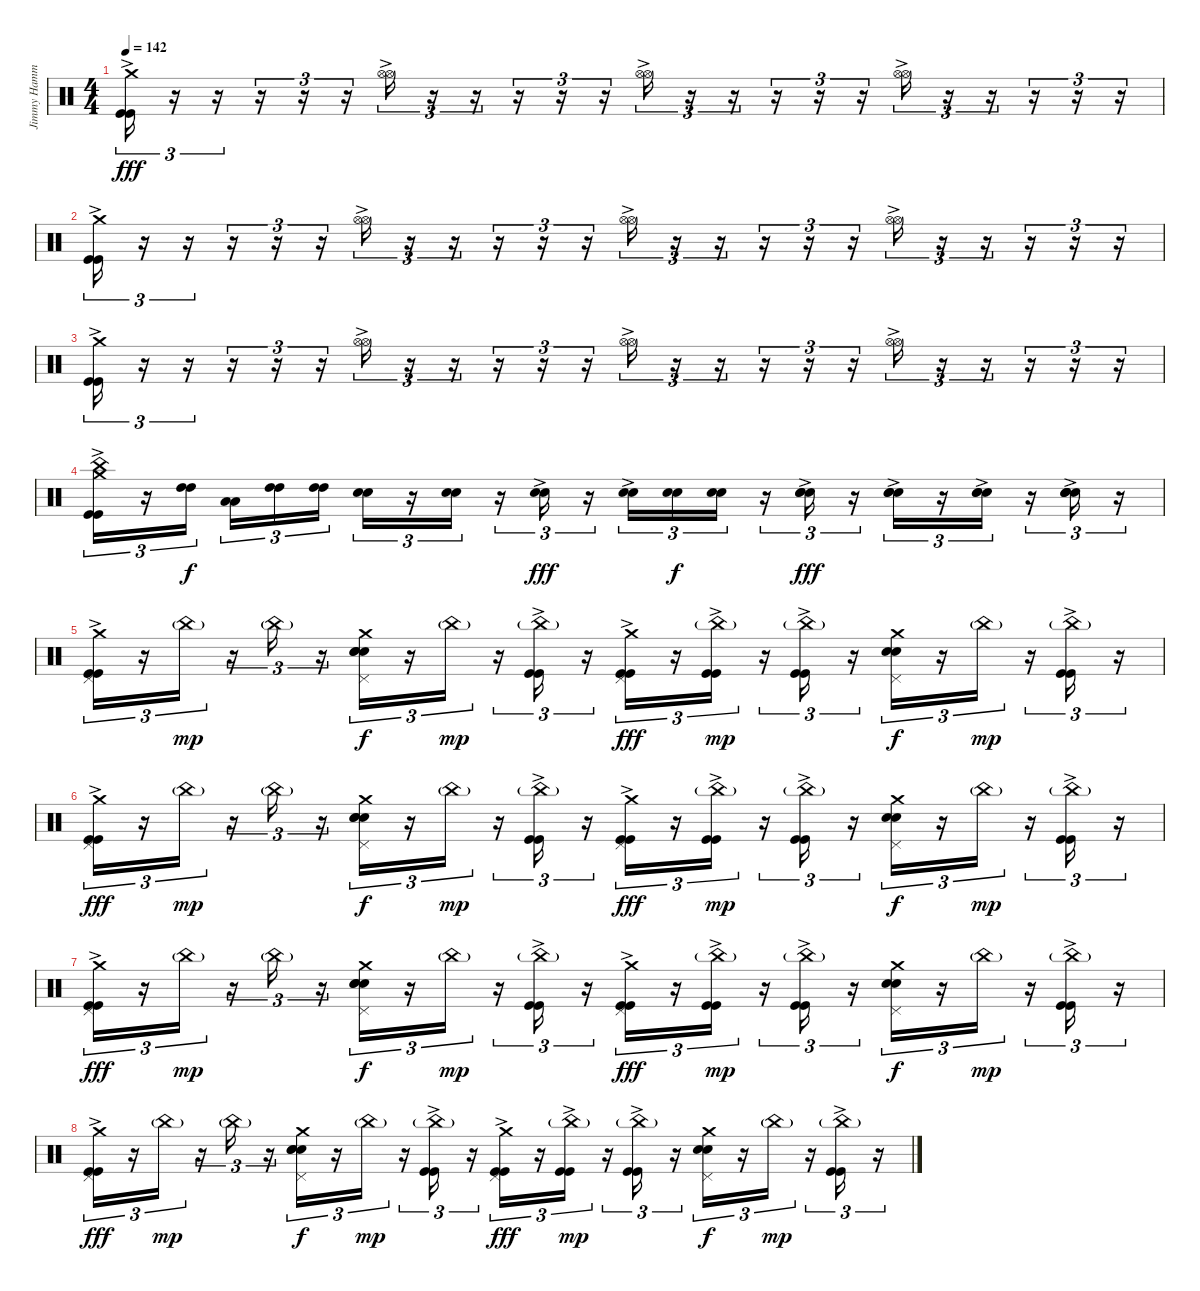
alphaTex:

\track ("Jimmy Hammer" "Jimmy Hamm") {instrument percussion}
\staff {score}
\articulation defaults
\ts (4 4)
\tempo 142
\clef neutral
\ks c
("Kick (hit)"{ac} "Crash medium (hit)"{ac} "Kick (hit)"{ac}).16{tu (3 2) dy fff} r.16{tu (3 2)} r.16{tu (3 2)} r.16{tu (3 2)} r.16{tu (3 2)} r.16{tu (3 2)} ("Hi-Hat (open)"{ac} "Hi-Hat (open)"{ac}).16{tu (3 2)} r.16{tu (3 2)} r.16{tu (3 2)} r.16{tu (3 2)} r.16{tu (3 2)} r.16{tu (3 2)} ("Hi-Hat (open)"{ac} "Hi-Hat (open)"{ac}).16{tu (3 2)} r.16{tu (3 2)} r.16{tu (3 2)} r.16{tu (3 2)} r.16{tu (3 2)} r.16{tu (3 2)} ("Hi-Hat (open)"{ac} "Hi-Hat (open)"{ac}).16{tu (3 2)} r.16{tu (3 2)} r.16{tu (3 2)} r.16{tu (3 2)} r.16{tu (3 2)} r.16{tu (3 2)} |
("Kick (hit)"{ac} "Crash medium (hit)"{ac} "Kick (hit)"{ac}).16{tu (3 2)} r.16{tu (3 2)} r.16{tu (3 2)} r.16{tu (3 2)} r.16{tu (3 2)} r.16{tu (3 2)} ("Hi-Hat (open)"{ac} "Hi-Hat (open)"{ac}).16{tu (3 2)} r.16{tu (3 2)} r.16{tu (3 2)} r.16{tu (3 2)} r.16{tu (3 2)} r.16{tu (3 2)} ("Hi-Hat (open)"{ac} "Hi-Hat (open)"{ac}).16{tu (3 2)} r.16{tu (3 2)} r.16{tu (3 2)} r.16{tu (3 2)} r.16{tu (3 2)} r.16{tu (3 2)} ("Hi-Hat (open)"{ac} "Hi-Hat (open)"{ac}).16{tu (3 2)} r.16{tu (3 2)} r.16{tu (3 2)} r.16{tu (3 2)} r.16{tu (3 2)} r.16{tu (3 2)} |
("Kick (hit)"{ac} "Crash medium (hit)"{ac} "Kick (hit)"{ac}).16{tu (3 2)} r.16{tu (3 2)} r.16{tu (3 2)} r.16{tu (3 2)} r.16{tu (3 2)} r.16{tu (3 2)} ("Hi-Hat (open)"{ac} "Hi-Hat (open)"{ac}).16{tu (3 2)} r.16{tu (3 2)} r.16{tu (3 2)} r.16{tu (3 2)} r.16{tu (3 2)} r.16{tu (3 2)} ("Hi-Hat (open)"{ac} "Hi-Hat (open)"{ac}).16{tu (3 2)} r.16{tu (3 2)} r.16{tu (3 2)} r.16{tu (3 2)} r.16{tu (3 2)} r.16{tu (3 2)} ("Hi-Hat (open)"{ac} "Hi-Hat (open)"{ac}).16{tu (3 2)} r.16{tu (3 2)} r.16{tu (3 2)} r.16{tu (3 2)} r.16{tu (3 2)} r.16{tu (3 2)} |
("Kick (hit)"{ac} "China (hit)" "Crash medium (hit)" "Kick (hit)"{ac}).16{tu (3 2)} r.16{tu (3 2)} ("High Tom (hit)" "High Tom (hit)").16{tu (3 2) dy f beam splitsecondary} ("Low Tom (hit)" "Low Tom (hit)").16{tu (3 2)} ("High Tom (hit)" "High Tom (hit)").16{tu (3 2)} ("High Tom (hit)" "High Tom (hit)").16{tu (3 2)} ("Electric Snare (hit)" "Electric Snare (hit)").16{tu (3 2)} r.16{tu (3 2)} ("Electric Snare (hit)" "Electric Snare (hit)").16{tu (3 2)} r.16{tu (3 2)} ("Electric Snare (hit)"{ac} "Electric Snare (hit)"{ac}).16{tu (3 2) dy fff} r.16{tu (3 2)} ("Electric Snare (hit)"{ac} "Electric Snare (hit)").16{tu (3 2)} ("Electric Snare (hit)" "Electric Snare (hit)").16{tu (3 2) dy f} ("Electric Snare (hit)" "Electric Snare (hit)").16{tu (3 2)} r.16{tu (3 2)} ("Electric Snare (hit)"{ac} "Electric Snare (hit)" "Electric Snare (hit)").16{tu (3 2) dy fff} r.16{tu (3 2)} ("Electric Snare (hit)"{ac} "Electric Snare (hit)" "Electric Snare (hit)").16{tu (3 2)} r.16{tu (3 2)} ("Electric Snare (hit)"{ac} "Electric Snare (hit)"{ac} "Electric Snare (hit)").16{tu (3 2)} r.16{tu (3 2)} ("Electric Snare (hit)"{ac} "Electric Snare (hit)"{ac} "Electric Snare (hit)" "Electric Snare (hit)").16{tu (3 2)} r.16{tu (3 2)} |
("Kick (hit)"{ac} "Crash medium (hit)" "Pedal Hi-Hat (hit)" "Kick (hit)"{ac}).16{tu (3 2)} r.16{tu (3 2)} "China (hit)"{g}.16{tu (3 2) dy mp} r.16{tu (3 2)} "China (hit)"{g}.16{tu (3 2)} r.16{tu (3 2)} ("Crash medium (hit)" "Electric Snare (hit)" "Electric Snare (hit)" "Electric Snare (hit)" "Pedal Hi-Hat (hit)").16{tu (3 2) dy f} r.16{tu (3 2)} "China (hit)"{g}.16{tu (3 2) dy mp} r.16{tu (3 2)} ("Kick (hit)"{ac} "Kick (hit)"{ac} "China (hit)"{g}).16{tu (3 2)} r.16{tu (3 2)} ("Crash medium (hit)" "Kick (hit)"{ac} "Kick (hit)"{ac} "Pedal Hi-Hat (hit)").16{tu (3 2) dy fff} r.16{tu (3 2)} ("Kick (hit)"{ac} "Kick (hit)"{ac} "China (hit)"{g}).16{tu (3 2) dy mp} r.16{tu (3 2)} ("Kick (hit)"{ac} "Kick (hit)"{ac} "China (hit)"{g}).16{tu (3 2)} r.16{tu (3 2)} ("Electric Snare (hit)" "Electric Snare (hit)" "Crash medium (hit)" "Pedal Hi-Hat (hit)").16{tu (3 2) dy f} r.16{tu (3 2)} "China (hit)"{g}.16{tu (3 2) dy mp} r.16{tu (3 2)} ("Kick (hit)"{ac} "Kick (hit)"{ac} "China (hit)"{g}).16{tu (3 2)} r.16{tu (3 2)} |
("Kick (hit)"{ac} "Crash medium (hit)" "Pedal Hi-Hat (hit)" "Kick (hit)"{ac}).16{tu (3 2) dy fff} r.16{tu (3 2)} "China (hit)"{g}.16{tu (3 2) dy mp} r.16{tu (3 2)} "China (hit)"{g}.16{tu (3 2)} r.16{tu (3 2)} ("Crash medium (hit)" "Electric Snare (hit)" "Electric Snare (hit)" "Electric Snare (hit)" "Pedal Hi-Hat (hit)").16{tu (3 2) dy f} r.16{tu (3 2)} "China (hit)"{g}.16{tu (3 2) dy mp} r.16{tu (3 2)} ("Kick (hit)"{ac} "Kick (hit)"{ac} "China (hit)"{g}).16{tu (3 2)} r.16{tu (3 2)} ("Crash medium (hit)" "Kick (hit)"{ac} "Kick (hit)"{ac} "Pedal Hi-Hat (hit)").16{tu (3 2) dy fff} r.16{tu (3 2)} ("Kick (hit)"{ac} "Kick (hit)"{ac} "China (hit)"{g}).16{tu (3 2) dy mp} r.16{tu (3 2)} ("Kick (hit)"{ac} "Kick (hit)"{ac} "China (hit)"{g}).16{tu (3 2)} r.16{tu (3 2)} ("Electric Snare (hit)" "Electric Snare (hit)" "Crash medium (hit)" "Pedal Hi-Hat (hit)").16{tu (3 2) dy f} r.16{tu (3 2)} "China (hit)"{g}.16{tu (3 2) dy mp} r.16{tu (3 2)} ("Kick (hit)"{ac} "Kick (hit)"{ac} "China (hit)"{g}).16{tu (3 2)} r.16{tu (3 2)} |
("Kick (hit)"{ac} "Crash medium (hit)" "Pedal Hi-Hat (hit)" "Kick (hit)"{ac}).16{tu (3 2) dy fff} r.16{tu (3 2)} "China (hit)"{g}.16{tu (3 2) dy mp} r.16{tu (3 2)} "China (hit)"{g}.16{tu (3 2)} r.16{tu (3 2)} ("Crash medium (hit)" "Electric Snare (hit)" "Electric Snare (hit)" "Electric Snare (hit)" "Pedal Hi-Hat (hit)").16{tu (3 2) dy f} r.16{tu (3 2)} "China (hit)"{g}.16{tu (3 2) dy mp} r.16{tu (3 2)} ("Kick (hit)"{ac} "Kick (hit)"{ac} "China (hit)"{g}).16{tu (3 2)} r.16{tu (3 2)} ("Crash medium (hit)" "Kick (hit)"{ac} "Kick (hit)"{ac} "Pedal Hi-Hat (hit)").16{tu (3 2) dy fff} r.16{tu (3 2)} ("Kick (hit)"{ac} "Kick (hit)"{ac} "China (hit)"{g}).16{tu (3 2) dy mp} r.16{tu (3 2)} ("Kick (hit)"{ac} "Kick (hit)"{ac} "China (hit)"{g}).16{tu (3 2)} r.16{tu (3 2)} ("Electric Snare (hit)" "Electric Snare (hit)" "Crash medium (hit)" "Pedal Hi-Hat (hit)").16{tu (3 2) dy f} r.16{tu (3 2)} "China (hit)"{g}.16{tu (3 2) dy mp} r.16{tu (3 2)} ("Kick (hit)"{ac} "Kick (hit)"{ac} "China (hit)"{g}).16{tu (3 2)} r.16{tu (3 2)} |
("Kick (hit)"{ac} "Crash medium (hit)" "Pedal Hi-Hat (hit)" "Kick (hit)"{ac}).16{tu (3 2) dy fff} r.16{tu (3 2)} "China (hit)"{g}.16{tu (3 2) dy mp} r.16{tu (3 2)} "China (hit)"{g}.16{tu (3 2)} r.16{tu (3 2)} ("Crash medium (hit)" "Electric Snare (hit)" "Electric Snare (hit)" "Electric Snare (hit)" "Pedal Hi-Hat (hit)").16{tu (3 2) dy f} r.16{tu (3 2)} "China (hit)"{g}.16{tu (3 2) dy mp} r.16{tu (3 2)} ("Kick (hit)"{ac} "Kick (hit)"{ac} "China (hit)"{g}).16{tu (3 2)} r.16{tu (3 2)} ("Crash medium (hit)" "Kick (hit)"{ac} "Kick (hit)"{ac} "Pedal Hi-Hat (hit)").16{tu (3 2) dy fff} r.16{tu (3 2)} ("Kick (hit)"{ac} "Kick (hit)"{ac} "China (hit)"{g}).16{tu (3 2) dy mp} r.16{tu (3 2)} ("Kick (hit)"{ac} "Kick (hit)"{ac} "China (hit)"{g}).16{tu (3 2)} r.16{tu (3 2)} ("Electric Snare (hit)" "Electric Snare (hit)" "Crash medium (hit)" "Pedal Hi-Hat (hit)").16{tu (3 2) dy f} r.16{tu (3 2)} "China (hit)"{g}.16{tu (3 2) dy mp} r.16{tu (3 2)} ("Kick (hit)"{ac} "Kick (hit)"{ac} "China (hit)"{g}).16{tu (3 2)} r.16{tu (3 2)}
